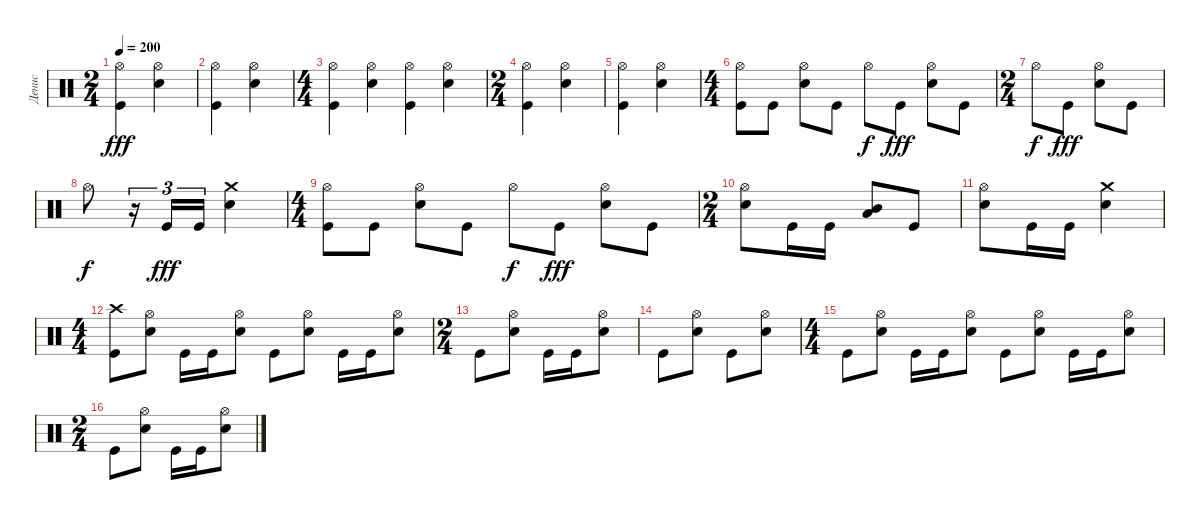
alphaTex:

\track ("Денис" "Денис") {instrument percussion}
\staff {score}
\articulation defaults
\ts (2 4)
\tempo 200
\clef neutral
\ks c
("Kick (hit)" "Hi-Hat (open)").4{dy fff} ("Electric Snare (hit)" "Hi-Hat (open)").4 |
("Kick (hit)" "Hi-Hat (open)").4 ("Electric Snare (hit)" "Hi-Hat (open)").4 |
\ts (4 4)
("Kick (hit)" "Hi-Hat (open)").4 ("Electric Snare (hit)" "Hi-Hat (open)").4 ("Kick (hit)" "Hi-Hat (open)").4 ("Electric Snare (hit)" "Hi-Hat (open)").4 |
\ts (2 4)
("Kick (hit)" "Hi-Hat (open)").4 ("Electric Snare (hit)" "Hi-Hat (open)").4 |
("Kick (hit)" "Hi-Hat (open)").4 ("Electric Snare (hit)" "Hi-Hat (open)").4 |
\ts (4 4)
("Hi-Hat (open)" "Kick (hit)").8 "Kick (hit)".8 ("Electric Snare (hit)" "Hi-Hat (open)").8 "Kick (hit)".8 "Hi-Hat (open)".8{dy f} "Kick (hit)".8{dy fff} ("Electric Snare (hit)" "Hi-Hat (open)").8 "Kick (hit)".8 |
\ts (2 4)
"Hi-Hat (open)".8{dy f} "Kick (hit)".8{dy fff} ("Electric Snare (hit)" "Hi-Hat (open)").8 "Kick (hit)".8 |
"Hi-Hat (open)".8{dy f} r.16{tu (3 2)} "Kick (hit)".16{tu (3 2) dy fff} "Kick (hit)".16{tu (3 2)} ("Electric Snare (hit)" "Crash medium (hit)").4 |
\ts (4 4)
("Hi-Hat (open)" "Kick (hit)").8 "Kick (hit)".8 ("Electric Snare (hit)" "Hi-Hat (open)").8 "Kick (hit)".8 "Hi-Hat (open)".8{dy f} "Kick (hit)".8{dy fff} ("Electric Snare (hit)" "Hi-Hat (open)").8 "Kick (hit)".8 |
\ts (2 4)
("Electric Snare (hit)" "Hi-Hat (open)").8 "Kick (hit)".16 "Kick (hit)".16 ("Mid Tom (hit)" "Low Tom (hit)").8 "Kick (hit)".8 |
("Electric Snare (hit)" "Hi-Hat (open)").8 "Kick (hit)".16 "Kick (hit)".16 ("Electric Snare (hit)" "Crash medium (hit)").4 |
\ts (4 4)
("Kick (hit)" "Crash high (hit)").8 ("Electric Snare (hit)" "Hi-Hat (open)").8 "Kick (hit)".16 "Kick (hit)".16 ("Electric Snare (hit)" "Hi-Hat (open)").8 "Kick (hit)".8 ("Electric Snare (hit)" "Hi-Hat (open)").8 "Kick (hit)".16 "Kick (hit)".16 ("Electric Snare (hit)" "Hi-Hat (open)").8 |
\ts (2 4)
"Kick (hit)".8 ("Electric Snare (hit)" "Hi-Hat (open)").8 "Kick (hit)".16 "Kick (hit)".16 ("Electric Snare (hit)" "Hi-Hat (open)").8 |
"Kick (hit)".8 ("Electric Snare (hit)" "Hi-Hat (open)").8 "Kick (hit)".8 ("Electric Snare (hit)" "Hi-Hat (open)").8 |
\ts (4 4)
"Kick (hit)".8 ("Electric Snare (hit)" "Hi-Hat (open)").8 "Kick (hit)".16 "Kick (hit)".16 ("Electric Snare (hit)" "Hi-Hat (open)").8 "Kick (hit)".8 ("Electric Snare (hit)" "Hi-Hat (open)").8 "Kick (hit)".16 "Kick (hit)".16 ("Electric Snare (hit)" "Hi-Hat (open)").8 |
\ts (2 4)
"Kick (hit)".8 ("Electric Snare (hit)" "Hi-Hat (open)").8 "Kick (hit)".16 "Kick (hit)".16 ("Electric Snare (hit)" "Hi-Hat (open)").8
